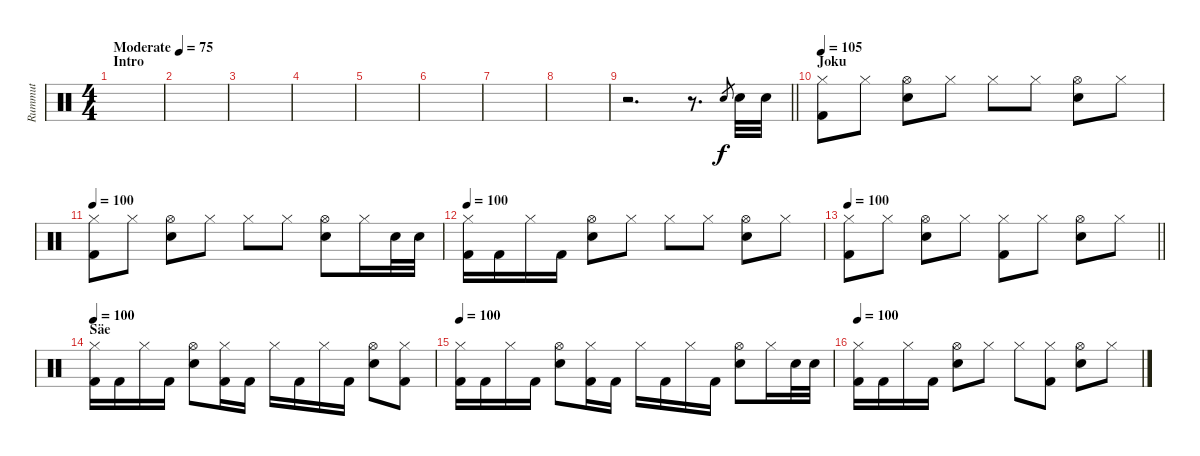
\track ("Rummut" "Rummut") {instrument percussion}
\staff {score}
\articulation defaults
\ts (4 4)
\section ("" "Intro")
\tempo (75 "Moderate")
\clef neutral
\ks c
|
|
|
|
|
|
|
|
\barLineRight lightlight
r.2{d} r.8{d} "Snare (hit) 2".8{gr} "Snare (hit) 2".32 "Snare (hit) 2".32 |
\section ("" "Joku")
\tempo 105
("Hi-Hat (closed)" "Kick (hit) 2").8 "Hi-Hat (closed)".8 ("Hi-Hat (open)" "Snare (hit) 2").8 "Hi-Hat (closed)".8 "Hi-Hat (closed)".8 "Hi-Hat (closed)".8 ("Hi-Hat (open)" "Snare (hit) 2").8 "Hi-Hat (closed)".8 |
\tempo 100
("Hi-Hat (closed)" "Kick (hit) 2").8 "Hi-Hat (closed)".8 ("Hi-Hat (open)" "Snare (hit) 2").8 "Hi-Hat (closed)".8 "Hi-Hat (closed)".8 "Hi-Hat (closed)".8 ("Hi-Hat (open)" "Snare (hit) 2").8 "Hi-Hat (closed)".16 "Snare (hit) 2".32 "Snare (hit) 2".32 |
\tempo 100
("Hi-Hat (closed)" "Kick (hit) 2").16 "Kick (hit) 2".16 "Hi-Hat (closed)".16 "Kick (hit) 2".16 ("Hi-Hat (open)" "Snare (hit) 2").8 "Hi-Hat (closed)".8 "Hi-Hat (closed)".8 "Hi-Hat (closed)".8 ("Hi-Hat (open)" "Snare (hit) 2").8 "Hi-Hat (closed)".8 |
\tempo 100
\barLineRight lightlight
("Hi-Hat (closed)" "Kick (hit) 2").8 "Hi-Hat (closed)".8 ("Hi-Hat (open)" "Snare (hit) 2").8 "Hi-Hat (closed)".8 ("Hi-Hat (closed)" "Kick (hit) 2").8 "Hi-Hat (closed)".8 ("Hi-Hat (open)" "Snare (hit) 2").8 "Hi-Hat (closed)".8 |
\section ("" "Säe")
\tempo 100
("Hi-Hat (closed)" "Kick (hit) 2").16 "Kick (hit) 2".16 "Hi-Hat (closed)".16 "Kick (hit) 2".16 ("Hi-Hat (open)" "Snare (hit) 2").8 ("Hi-Hat (closed)" "Kick (hit) 2").16 "Kick (hit) 2".16 "Hi-Hat (closed)".16 "Kick (hit) 2".16 "Hi-Hat (closed)".16 "Kick (hit) 2".16 ("Hi-Hat (open)" "Snare (hit) 2").8 ("Hi-Hat (closed)" "Kick (hit) 2").8 |
\tempo 100
("Hi-Hat (closed)" "Kick (hit) 2").16 "Kick (hit) 2".16 "Hi-Hat (closed)".16 "Kick (hit) 2".16 ("Hi-Hat (open)" "Snare (hit) 2").8 ("Hi-Hat (closed)" "Kick (hit) 2").16 "Kick (hit) 2".16 "Hi-Hat (closed)".16 "Kick (hit) 2".16 "Hi-Hat (closed)".16 "Kick (hit) 2".16 ("Hi-Hat (open)" "Snare (hit) 2").8 "Hi-Hat (closed)".16 "Snare (hit) 2".32 "Snare (hit) 2".32 |
\tempo 100
("Hi-Hat (closed)" "Kick (hit) 2").16 "Kick (hit) 2".16 "Hi-Hat (closed)".16 "Kick (hit) 2".16 ("Hi-Hat (open)" "Snare (hit) 2").8 "Hi-Hat (closed)".8 "Hi-Hat (closed)".8 ("Hi-Hat (closed)" "Kick (hit) 2").8 ("Hi-Hat (open)" "Snare (hit) 2").8 "Hi-Hat (closed)".8
